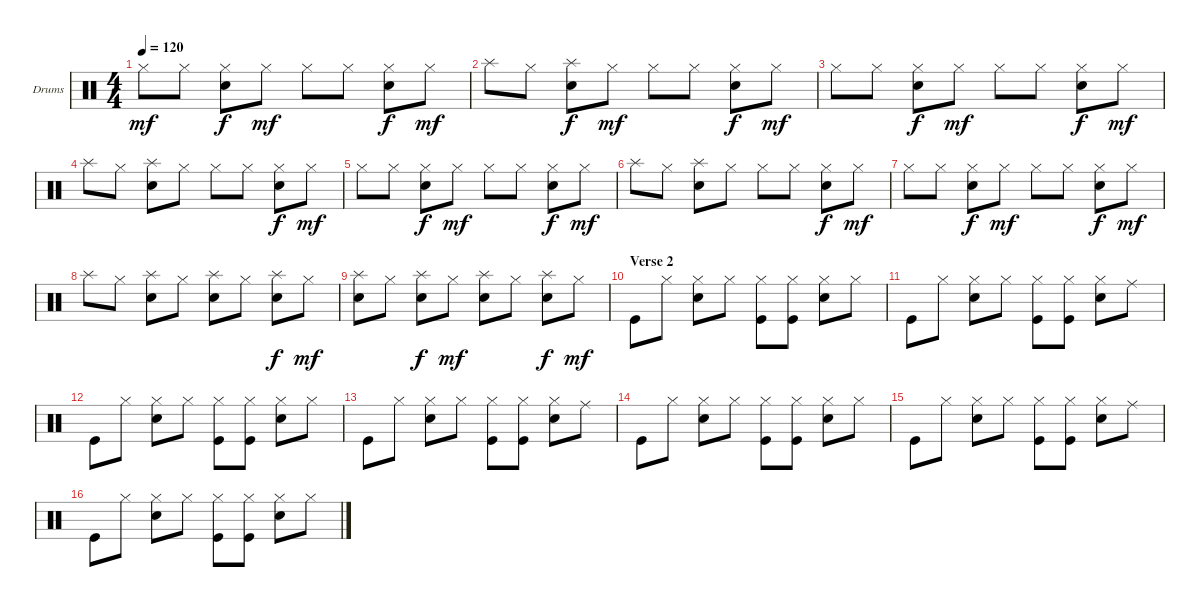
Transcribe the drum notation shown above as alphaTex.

\bracketExtendMode groupsimilarinstruments
\firstSystemTrackNameOrientation horizontal
\otherSystemsTrackNameOrientation horizontal
\track ("Drumkit" "Drums") {instrument percussion}
\staff {score}
\articulation defaults
\ts (4 4)
\tempo 120
\clef neutral
\ks c "Hi-Hat (closed)".8{dy mf} "Hi-Hat (closed)".8
("Hi-Hat (closed)" "Snare (hit) 2").8{dy f} "Hi-Hat (closed)".8{dy mf} "Hi-Hat (closed)".8 "Hi-Hat (closed)".8 ("Hi-Hat (closed)" "Snare (hit) 2").8{dy f} "Hi-Hat (closed)".8{dy mf} |
"Splash (hit)".8 "Hi-Hat (closed)".8 ("Snare (hit) 2" "Splash (hit)").8{dy f} "Hi-Hat (closed)".8{dy mf} "Hi-Hat (closed)".8 "Hi-Hat (closed)".8 ("Hi-Hat (closed)" "Snare (hit) 2").8{dy f} "Hi-Hat (closed)".8{dy mf} |
"Hi-Hat (closed)".8 "Hi-Hat (closed)".8 ("Hi-Hat (closed)" "Snare (hit) 2").8{dy f} "Hi-Hat (closed)".8{dy mf} "Hi-Hat (closed)".8 "Hi-Hat (closed)".8 ("Hi-Hat (closed)" "Snare (hit) 2").8{dy f} "Hi-Hat (closed)".8{dy mf} |
"Splash (hit)".8 "Hi-Hat (closed)".8 ("Snare (hit) 2" "Splash (hit)").8 "Hi-Hat (closed)".8 "Hi-Hat (closed)".8 "Hi-Hat (closed)".8 ("Hi-Hat (closed)" "Snare (hit) 2").8{dy f} "Hi-Hat (closed)".8{dy mf} |
"Hi-Hat (closed)".8 "Hi-Hat (closed)".8 ("Hi-Hat (closed)" "Snare (hit) 2").8{dy f} "Hi-Hat (closed)".8{dy mf} "Hi-Hat (closed)".8 "Hi-Hat (closed)".8 ("Hi-Hat (closed)" "Snare (hit) 2").8{dy f} "Hi-Hat (closed)".8{dy mf} |
"Splash (hit)".8 "Hi-Hat (closed)".8 ("Snare (hit) 2" "Splash (hit)").8 "Hi-Hat (closed)".8 "Hi-Hat (closed)".8 "Hi-Hat (closed)".8 ("Hi-Hat (closed)" "Snare (hit) 2").8{dy f} "Hi-Hat (closed)".8{dy mf} |
"Hi-Hat (closed)".8 "Hi-Hat (closed)".8 ("Hi-Hat (closed)" "Snare (hit) 2").8{dy f} "Hi-Hat (closed)".8{dy mf} "Hi-Hat (closed)".8 "Hi-Hat (closed)".8 ("Hi-Hat (closed)" "Snare (hit) 2").8{dy f} "Hi-Hat (closed)".8{dy mf} |
"Splash (hit)".8 "Hi-Hat (closed)".8 ("Snare (hit) 2" "Splash (hit)").8 "Hi-Hat (closed)".8 ("Snare (hit) 2" "Splash (hit)").8 "Hi-Hat (closed)".8 ("Snare (hit) 2" "Splash (hit)").8{dy f} "Hi-Hat (closed)".8{dy mf} |
("Snare (hit) 2" "Splash (hit)").8 "Hi-Hat (closed)".8 ("Snare (hit) 2" "Splash (hit)").8{dy f} "Hi-Hat (closed)".8{dy mf} ("Snare (hit) 2" "Splash (hit)").8 "Hi-Hat (closed)".8 ("Snare (hit) 2" "Splash (hit)").8{dy f} "Hi-Hat (closed)".8{dy mf} |
\section ("" "Verse 2")
"Kick (hit)".8 "Hi-Hat (closed)".8 ("Snare (hit) 2" "Hi-Hat (closed)").8 "Hi-Hat (closed)".8 ("Kick (hit)" "Hi-Hat (closed)").8 ("Kick (hit)" "Hi-Hat (closed)").8 ("Snare (hit) 2" "Hi-Hat (closed)").8 "Hi-Hat (closed)".8 |
"Kick (hit)".8 "Hi-Hat (closed)".8 ("Snare (hit) 2" "Hi-Hat (closed)").8 "Hi-Hat (closed)".8 ("Kick (hit)" "Hi-Hat (closed)").8 ("Kick (hit)" "Hi-Hat (closed)").8 ("Snare (hit) 2" "Hi-Hat (closed)").8 "Ride (middle)".8 |
"Kick (hit)".8 "Hi-Hat (closed)".8 ("Snare (hit) 2" "Hi-Hat (closed)").8 "Hi-Hat (closed)".8 ("Kick (hit)" "Hi-Hat (closed)").8 ("Kick (hit)" "Hi-Hat (closed)").8 ("Snare (hit) 2" "Hi-Hat (closed)").8 "Hi-Hat (closed)".8 |
"Kick (hit)".8 "Hi-Hat (closed)".8 ("Snare (hit) 2" "Hi-Hat (closed)").8 "Hi-Hat (closed)".8 ("Kick (hit)" "Hi-Hat (closed)").8 ("Kick (hit)" "Hi-Hat (closed)").8 ("Snare (hit) 2" "Hi-Hat (closed)").8 "Ride (middle)".8 |
"Kick (hit)".8 "Hi-Hat (closed)".8 ("Snare (hit) 2" "Hi-Hat (closed)").8 "Hi-Hat (closed)".8 ("Kick (hit)" "Hi-Hat (closed)").8 ("Kick (hit)" "Hi-Hat (closed)").8 ("Snare (hit) 2" "Hi-Hat (closed)").8 "Hi-Hat (closed)".8 |
"Kick (hit)".8 "Hi-Hat (closed)".8 ("Snare (hit) 2" "Hi-Hat (closed)").8 "Hi-Hat (closed)".8 ("Kick (hit)" "Hi-Hat (closed)").8 ("Kick (hit)" "Hi-Hat (closed)").8 ("Snare (hit) 2" "Hi-Hat (closed)").8 "Ride (middle)".8 |
"Kick (hit)".8 "Hi-Hat (closed)".8 ("Snare (hit) 2" "Hi-Hat (closed)").8 "Hi-Hat (closed)".8 ("Kick (hit)" "Hi-Hat (closed)").8 ("Kick (hit)" "Hi-Hat (closed)").8 ("Snare (hit) 2" "Hi-Hat (closed)").8 "Hi-Hat (closed)".8
